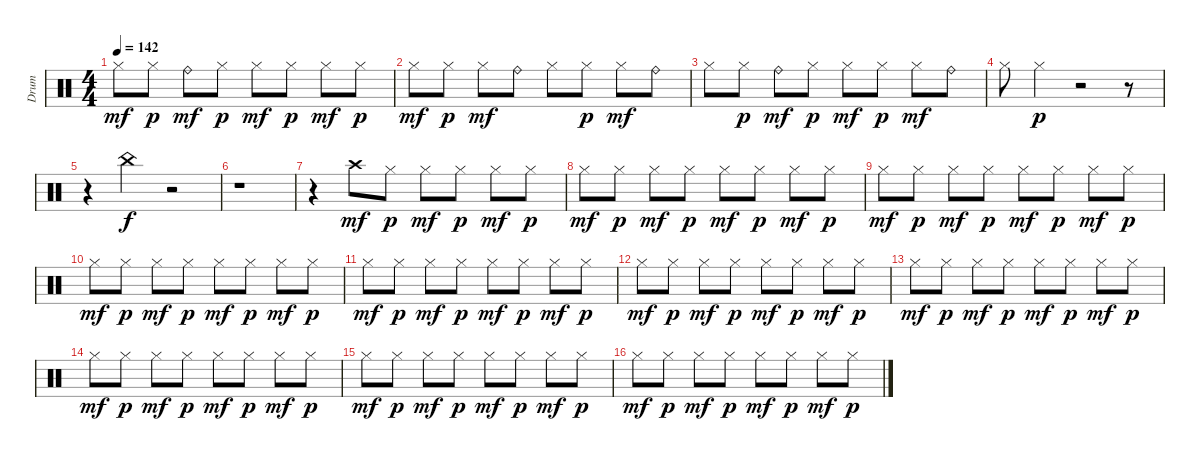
\track ("Drum" "Drum") {instrument percussion}
\staff {score}
\articulation defaults
\ts (4 4)
\tempo 142
\clef neutral
\ks c "Hi-Hat (closed)".8{dy mf} "Hi-Hat (closed)".8{dy p} "Ride (bell)".8{dy mf} "Hi-Hat (closed)".8{dy p} "Hi-Hat (closed)".8{dy mf} "Hi-Hat (closed)".8{dy p} "Hi-Hat (closed)".8{dy mf} "Hi-Hat (closed)".8{dy p}
|
"Hi-Hat (closed)".8{dy mf} "Hi-Hat (closed)".8{dy p} "Hi-Hat (closed)".8{dy mf} "Ride (bell)".8 "Hi-Hat (closed)".8 "Hi-Hat (closed)".8{dy p} "Hi-Hat (closed)".8{dy mf} "Ride (bell)".8 |
"Hi-Hat (closed)".8 "Hi-Hat (closed)".8{dy p} "Ride (bell)".8{dy mf} "Hi-Hat (closed)".8{dy p} "Hi-Hat (closed)".8{dy mf} "Hi-Hat (closed)".8{dy p} "Hi-Hat (closed)".8{dy mf} "Ride (bell)".8 |
"Hi-Hat (closed)".8 "Hi-Hat (closed)".4{dy p} r.2 r.8 |
r.4 "China (hit)".4{dy f} r.2 |
r.1 |
r.4 "Crash high (hit)".8{dy mf} "Hi-Hat (closed)".8{dy p} "Hi-Hat (closed)".8{dy mf} "Hi-Hat (closed)".8{dy p} "Hi-Hat (closed)".8{dy mf} "Hi-Hat (closed)".8{dy p} |
"Hi-Hat (closed)".8{dy mf} "Hi-Hat (closed)".8{dy p} "Hi-Hat (closed)".8{dy mf} "Hi-Hat (closed)".8{dy p} "Hi-Hat (closed)".8{dy mf} "Hi-Hat (closed)".8{dy p} "Hi-Hat (closed)".8{dy mf} "Hi-Hat (closed)".8{dy p} |
"Hi-Hat (closed)".8{dy mf} "Hi-Hat (closed)".8{dy p} "Hi-Hat (closed)".8{dy mf} "Hi-Hat (closed)".8{dy p} "Hi-Hat (closed)".8{dy mf} "Hi-Hat (closed)".8{dy p} "Hi-Hat (closed)".8{dy mf} "Hi-Hat (closed)".8{dy p} |
"Hi-Hat (closed)".8{dy mf} "Hi-Hat (closed)".8{dy p} "Hi-Hat (closed)".8{dy mf} "Hi-Hat (closed)".8{dy p} "Hi-Hat (closed)".8{dy mf} "Hi-Hat (closed)".8{dy p} "Hi-Hat (closed)".8{dy mf} "Hi-Hat (closed)".8{dy p} |
"Hi-Hat (closed)".8{dy mf} "Hi-Hat (closed)".8{dy p} "Hi-Hat (closed)".8{dy mf} "Hi-Hat (closed)".8{dy p} "Hi-Hat (closed)".8{dy mf} "Hi-Hat (closed)".8{dy p} "Hi-Hat (closed)".8{dy mf} "Hi-Hat (closed)".8{dy p} |
"Hi-Hat (closed)".8{dy mf} "Hi-Hat (closed)".8{dy p} "Hi-Hat (closed)".8{dy mf} "Hi-Hat (closed)".8{dy p} "Hi-Hat (closed)".8{dy mf} "Hi-Hat (closed)".8{dy p} "Hi-Hat (closed)".8{dy mf} "Hi-Hat (closed)".8{dy p} |
"Hi-Hat (closed)".8{dy mf} "Hi-Hat (closed)".8{dy p} "Hi-Hat (closed)".8{dy mf} "Hi-Hat (closed)".8{dy p} "Hi-Hat (closed)".8{dy mf} "Hi-Hat (closed)".8{dy p} "Hi-Hat (closed)".8{dy mf} "Hi-Hat (closed)".8{dy p} |
"Hi-Hat (closed)".8{dy mf} "Hi-Hat (closed)".8{dy p} "Hi-Hat (closed)".8{dy mf} "Hi-Hat (closed)".8{dy p} "Hi-Hat (closed)".8{dy mf} "Hi-Hat (closed)".8{dy p} "Hi-Hat (closed)".8{dy mf} "Hi-Hat (closed)".8{dy p} |
"Hi-Hat (closed)".8{dy mf} "Hi-Hat (closed)".8{dy p} "Hi-Hat (closed)".8{dy mf} "Hi-Hat (closed)".8{dy p} "Hi-Hat (closed)".8{dy mf} "Hi-Hat (closed)".8{dy p} "Hi-Hat (closed)".8{dy mf} "Hi-Hat (closed)".8{dy p} |
"Hi-Hat (closed)".8{dy mf} "Hi-Hat (closed)".8{dy p} "Hi-Hat (closed)".8{dy mf} "Hi-Hat (closed)".8{dy p} "Hi-Hat (closed)".8{dy mf} "Hi-Hat (closed)".8{dy p} "Hi-Hat (closed)".8{dy mf} "Hi-Hat (closed)".8{dy p}
